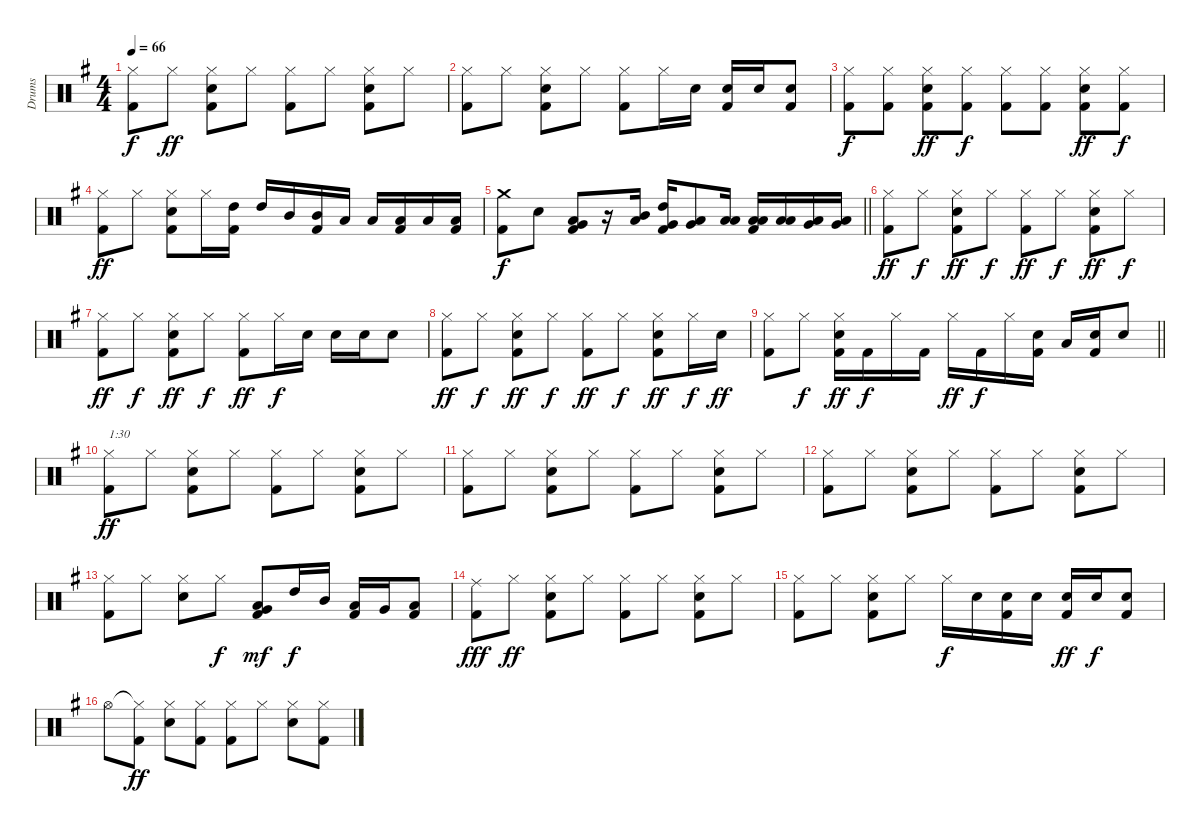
\track ("Drums" "Drums") {instrument percussion}
\staff {score}
\articulation defaults
\ts (4 4)
\tempo 66
\clef neutral
\ks g
("Hi-Hat (closed)" "Kick (hit) 2").8{dy f} "Hi-Hat (closed)".8{dy ff} ("Hi-Hat (closed)" "Snare (hit) 2" "Kick (hit) 2").8 "Hi-Hat (closed)".8 ("Hi-Hat (closed)" "Kick (hit) 2").8 "Hi-Hat (closed)".8 ("Hi-Hat (closed)" "Snare (hit) 2" "Kick (hit) 2").8 "Hi-Hat (closed)".8 |
("Hi-Hat (closed)" "Kick (hit) 2").8 "Hi-Hat (closed)".8 ("Hi-Hat (closed)" "Snare (hit) 2" "Kick (hit) 2").8 "Hi-Hat (closed)".8 ("Hi-Hat (closed)" "Kick (hit) 2").8 "Hi-Hat (closed)".16 "Snare (hit) 2".16 ("Snare (hit) 2" "Kick (hit) 2").16 "Snare (hit) 2".16 ("Snare (hit) 2" "Kick (hit) 2").8 |
("Hi-Hat (closed)" "Kick (hit) 2").8{dy f} ("Hi-Hat (closed)" "Kick (hit) 2").8 ("Hi-Hat (closed)" "Snare (hit) 2" "Kick (hit) 2").8{dy ff} ("Hi-Hat (closed)" "Kick (hit) 2").8{dy f} ("Hi-Hat (closed)" "Kick (hit) 2").8 ("Hi-Hat (closed)" "Kick (hit) 2").8 ("Hi-Hat (closed)" "Snare (hit) 2" "Kick (hit) 2").8{dy ff} ("Hi-Hat (closed)" "Kick (hit) 2").8{dy f} |
("Hi-Hat (closed)" "Kick (hit) 2").8{dy ff} "Hi-Hat (closed)".8 ("Hi-Hat (closed)" "Snare (hit) 2" "Kick (hit) 2").8 "Hi-Hat (closed)".16 ("High Tom (hit)" "Kick (hit) 2").16 "High Tom (hit)".16 "Mid Tom (hit)".16 ("Mid Tom (hit)" "Kick (hit) 2").16 "Low Tom (hit)".16 "Low Tom (hit)".16 ("Low Tom (hit)" "Kick (hit) 2").16 "Low Tom (hit)".16 ("Low Tom (hit)" "Kick (hit) 2").16 |
\barLineRight lightlight
("Crash medium (hit)" "Kick (hit) 2").8{dy f} "Snare (hit) 2".8 ("Very Low Tom (hit)" "Low Tom (hit)" "Kick (hit) 2").8 r.16 ("Mid Tom (hit)" "Low Tom (hit)").16 ("High Tom (hit)" "Very Low Tom (hit)" "Kick (hit) 2").16 ("Low Tom (hit)" "Very Low Tom (hit)").8 ("Low Tom (hit)" "Low Floor Tom (hit)").16 ("Low Tom (hit)" "Low Floor Tom (hit)" "Kick (hit) 2").16 ("Low Tom (hit)" "Low Floor Tom (hit)").16 ("Low Tom (hit)" "Very Low Tom (hit)").16 ("Low Tom (hit)" "Very Low Tom (hit)").16 |
("Hi-Hat (closed)" "Kick (hit) 2").8{dy ff} "Hi-Hat (closed)".8{dy f} ("Hi-Hat (closed)" "Snare (hit) 2" "Kick (hit) 2").8{dy ff} "Hi-Hat (closed)".8{dy f} ("Hi-Hat (closed)" "Kick (hit) 2").8{dy ff} "Hi-Hat (closed)".8{dy f} ("Hi-Hat (closed)" "Snare (hit) 2" "Kick (hit) 2").8{dy ff} "Hi-Hat (closed)".8{dy f} |
("Hi-Hat (closed)" "Kick (hit) 2").8{dy ff} "Hi-Hat (closed)".8{dy f} ("Hi-Hat (closed)" "Snare (hit) 2" "Kick (hit) 2").8{dy ff} "Hi-Hat (closed)".8{dy f} ("Hi-Hat (closed)" "Kick (hit) 2").8{dy ff} "Hi-Hat (closed)".16{dy f} "Snare (hit) 2".16 "Snare (hit) 2".16 "Snare (hit) 2".16 "Snare (hit) 2".8 |
("Hi-Hat (closed)" "Kick (hit) 2").8{dy ff} "Hi-Hat (closed)".8{dy f} ("Hi-Hat (closed)" "Snare (hit) 2" "Kick (hit) 2").8{dy ff} "Hi-Hat (closed)".8{dy f} ("Hi-Hat (closed)" "Kick (hit) 2").8{dy ff} "Hi-Hat (closed)".8{dy f} ("Hi-Hat (closed)" "Snare (hit) 2" "Kick (hit) 2").8{dy ff} "Hi-Hat (closed)".16{dy f} "Snare (hit) 2".16{dy ff} |
\barLineRight lightlight
("Hi-Hat (closed)" "Kick (hit) 2").8 "Hi-Hat (closed)".8{dy f} ("Hi-Hat (closed)" "Snare (hit) 2" "Kick (hit) 2").16{dy ff} "Kick (hit) 2".16{dy f} "Hi-Hat (closed)".16 "Kick (hit) 2".16 "Hi-Hat (closed)".16{dy ff} "Kick (hit) 2".16{dy f} "Hi-Hat (closed)".16 ("Snare (hit) 2" "Kick (hit) 2").16 "Low Tom (hit)".16 ("Snare (hit) 2" "Kick (hit) 2").16 "Snare (hit) 2".8 |
("Hi-Hat (closed)" "Kick (hit) 2").8{txt "1:30" dy ff} "Hi-Hat (closed)".8 ("Hi-Hat (closed)" "Snare (hit) 2" "Kick (hit) 2").8 "Hi-Hat (closed)".8 ("Hi-Hat (closed)" "Kick (hit) 2").8 "Hi-Hat (closed)".8 ("Hi-Hat (closed)" "Snare (hit) 2" "Kick (hit) 2").8 "Hi-Hat (closed)".8 |
("Hi-Hat (closed)" "Kick (hit) 2").8 "Hi-Hat (closed)".8 ("Hi-Hat (closed)" "Snare (hit) 2" "Kick (hit) 2").8 "Hi-Hat (closed)".8 ("Hi-Hat (closed)" "Kick (hit) 2").8 "Hi-Hat (closed)".8 ("Hi-Hat (closed)" "Snare (hit) 2" "Kick (hit) 2").8 "Hi-Hat (closed)".8 |
("Hi-Hat (closed)" "Kick (hit) 2").8 "Hi-Hat (closed)".8 ("Hi-Hat (closed)" "Snare (hit) 2" "Kick (hit) 2").8 "Hi-Hat (closed)".8 ("Hi-Hat (closed)" "Kick (hit) 2").8 "Hi-Hat (closed)".8 ("Hi-Hat (closed)" "Snare (hit) 2" "Kick (hit) 2").8 "Hi-Hat (closed)".8 |
("Hi-Hat (closed)" "Kick (hit) 2").8 "Hi-Hat (closed)".8 ("Hi-Hat (closed)" "Snare (hit) 2").8 "Hi-Hat (closed)".8{dy f} ("Low Tom (hit)" "Very Low Tom (hit)" "Kick (hit) 2").8{dy mf} "High Tom (hit)".16{dy f} "Mid Tom (hit)".16 ("Low Tom (hit)" "Kick (hit) 2").16 "Very Low Tom (hit)".16 ("Low Floor Tom (hit)" "Kick (hit) 2").8 |
("Ride (middle)" "Kick (hit) 2").8{dy fff} "Hi-Hat (closed)".8{dy ff} ("Hi-Hat (closed)" "Snare (hit) 2" "Kick (hit) 2").8 "Hi-Hat (closed)".8 ("Hi-Hat (closed)" "Kick (hit) 2").8 "Hi-Hat (closed)".8 ("Hi-Hat (closed)" "Snare (hit) 2" "Kick (hit) 2").8 "Hi-Hat (closed)".8 |
("Hi-Hat (closed)" "Kick (hit) 2").8 "Hi-Hat (closed)".8 ("Hi-Hat (closed)" "Snare (hit) 2" "Kick (hit) 2").8 "Hi-Hat (closed)".8 "Hi-Hat (closed)".16{dy f} "Snare (hit) 2".16 ("Snare (hit) 2" "Kick (hit) 2").16 "Snare (hit) 2".16 ("Snare (hit) 2" "Kick (hit) 2").16{dy ff} "Snare (hit) 2".16{dy f} ("Snare (hit) 2" "Kick (hit) 2").8 |
"Hi-Hat (open)".8 ("Hi-Hat (closed)"{t} "Kick (hit) 2").8{dy ff} ("Hi-Hat (closed)" "Snare (hit) 2").8 ("Hi-Hat (closed)" "Kick (hit) 2").8 ("Hi-Hat (closed)" "Kick (hit) 2").8 "Hi-Hat (closed)".8 ("Hi-Hat (closed)" "Snare (hit) 2").8 ("Hi-Hat (closed)" "Kick (hit) 2").8
